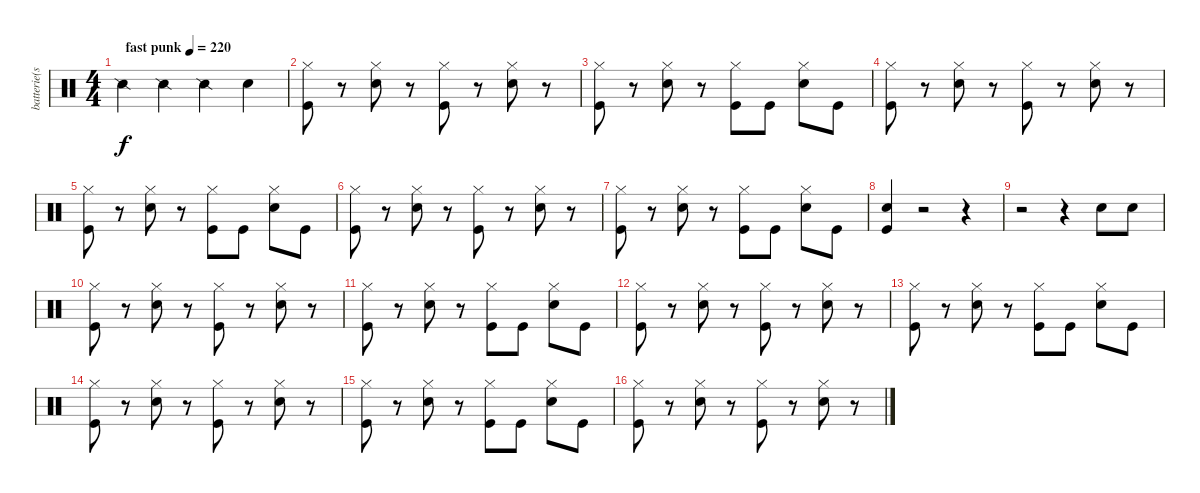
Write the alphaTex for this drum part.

\track ("batterie(scott)" "batterie(s") {instrument percussion}
\staff {score}
\articulation defaults
\ts (4 4)
\tempo (220 "fast punk")
\clef neutral
\ks c "Snare (side stick) 2".4{dy f} "Snare (side stick) 2".4 "Snare (side stick) 2".4 "Snare (hit) 2".4
|
("Hi-Hat (closed)" "Kick (hit)").8 r.8 ("Hi-Hat (closed)" "Snare (hit) 2").8 r.8 ("Hi-Hat (closed)" "Kick (hit)").8 r.8 ("Hi-Hat (closed)" "Snare (hit) 2").8 r.8 |
("Hi-Hat (closed)" "Kick (hit)").8 r.8 ("Hi-Hat (closed)" "Snare (hit) 2").8 r.8 ("Hi-Hat (closed)" "Kick (hit)").8 "Kick (hit)".8 ("Hi-Hat (closed)" "Snare (hit) 2").8 "Kick (hit)".8 |
("Hi-Hat (closed)" "Kick (hit)").8 r.8 ("Hi-Hat (closed)" "Snare (hit) 2").8 r.8 ("Hi-Hat (closed)" "Kick (hit)").8 r.8 ("Hi-Hat (closed)" "Snare (hit) 2").8 r.8 |
("Hi-Hat (closed)" "Kick (hit)").8 r.8 ("Hi-Hat (closed)" "Snare (hit) 2").8 r.8 ("Hi-Hat (closed)" "Kick (hit)").8 "Kick (hit)".8 ("Hi-Hat (closed)" "Snare (hit) 2").8 "Kick (hit)".8 |
("Hi-Hat (closed)" "Kick (hit)").8 r.8 ("Hi-Hat (closed)" "Snare (hit) 2").8 r.8 ("Hi-Hat (closed)" "Kick (hit)").8 r.8 ("Hi-Hat (closed)" "Snare (hit) 2").8 r.8 |
("Hi-Hat (closed)" "Kick (hit)").8 r.8 ("Hi-Hat (closed)" "Snare (hit) 2").8 r.8 ("Hi-Hat (closed)" "Kick (hit)").8 "Kick (hit)".8 ("Hi-Hat (closed)" "Snare (hit) 2").8 "Kick (hit)".8 |
("Snare (hit) 2" "Kick (hit)").4 r.2 r.4 |
r.2 r.4 "Snare (hit) 2".8 "Snare (hit) 2".8 |
("Hi-Hat (closed)" "Kick (hit)").8 r.8 ("Hi-Hat (closed)" "Snare (hit) 2").8 r.8 ("Hi-Hat (closed)" "Kick (hit)").8 r.8 ("Hi-Hat (closed)" "Snare (hit) 2").8 r.8 |
("Hi-Hat (closed)" "Kick (hit)").8 r.8 ("Hi-Hat (closed)" "Snare (hit) 2").8 r.8 ("Hi-Hat (closed)" "Kick (hit)").8 "Kick (hit)".8 ("Hi-Hat (closed)" "Snare (hit) 2").8 "Kick (hit)".8 |
("Hi-Hat (closed)" "Kick (hit)").8 r.8 ("Hi-Hat (closed)" "Snare (hit) 2").8 r.8 ("Hi-Hat (closed)" "Kick (hit)").8 r.8 ("Hi-Hat (closed)" "Snare (hit) 2").8 r.8 |
("Hi-Hat (closed)" "Kick (hit)").8 r.8 ("Hi-Hat (closed)" "Snare (hit) 2").8 r.8 ("Hi-Hat (closed)" "Kick (hit)").8 "Kick (hit)".8 ("Hi-Hat (closed)" "Snare (hit) 2").8 "Kick (hit)".8 |
("Hi-Hat (closed)" "Kick (hit)").8 r.8 ("Hi-Hat (closed)" "Snare (hit) 2").8 r.8 ("Hi-Hat (closed)" "Kick (hit)").8 r.8 ("Hi-Hat (closed)" "Snare (hit) 2").8 r.8 |
("Hi-Hat (closed)" "Kick (hit)").8 r.8 ("Hi-Hat (closed)" "Snare (hit) 2").8 r.8 ("Hi-Hat (closed)" "Kick (hit)").8 "Kick (hit)".8 ("Hi-Hat (closed)" "Snare (hit) 2").8 "Kick (hit)".8 |
("Hi-Hat (closed)" "Kick (hit)").8 r.8 ("Hi-Hat (closed)" "Snare (hit) 2").8 r.8 ("Hi-Hat (closed)" "Kick (hit)").8 r.8 ("Hi-Hat (closed)" "Snare (hit) 2").8 r.8
